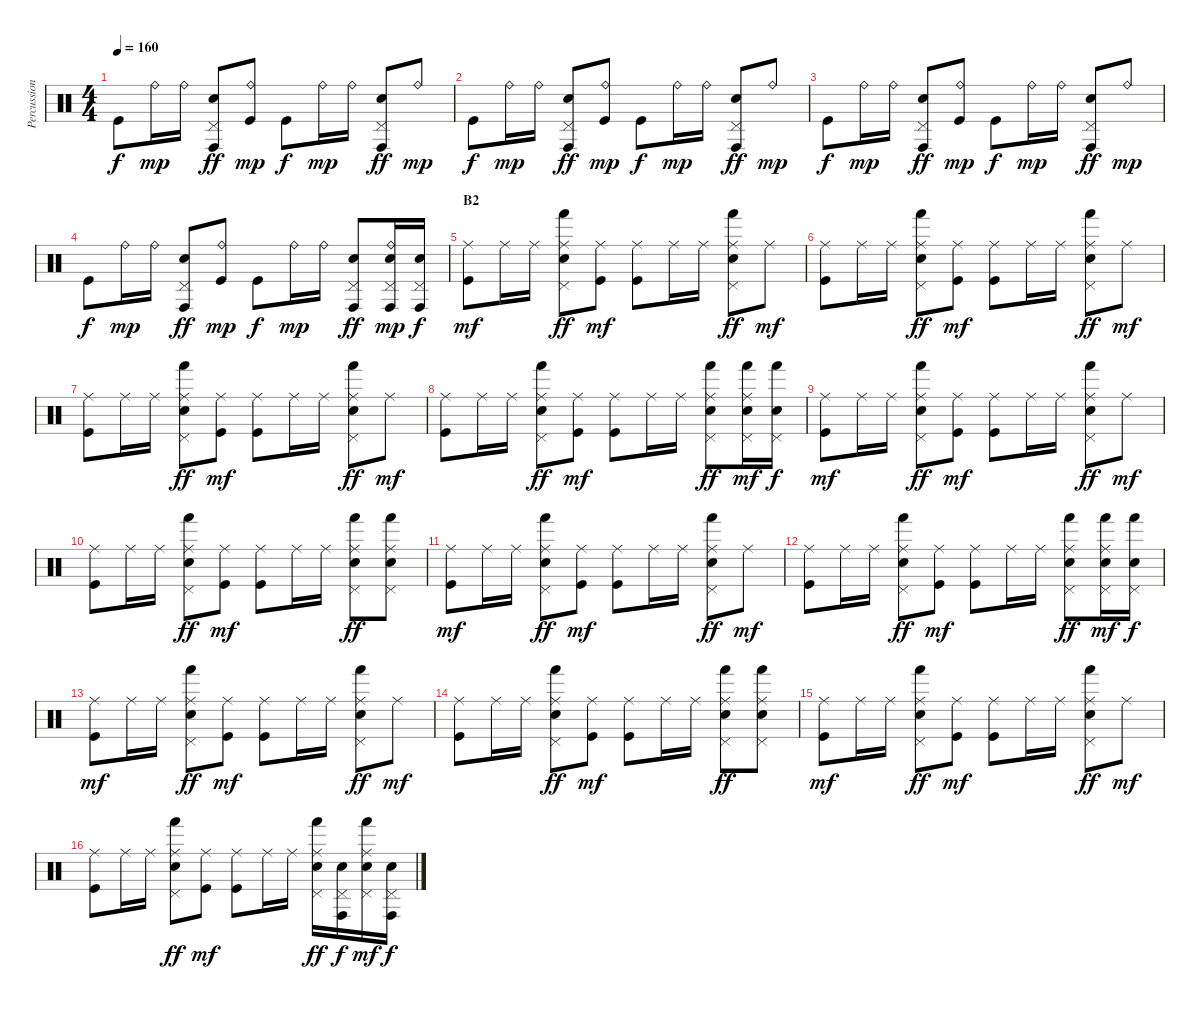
\track ("Percussion" "Percussion") {instrument percussion}
\staff {score}
\articulation defaults
\ts (4 4)
\tempo 160
\clef neutral
\ks c "Kick (hit)".8{dy f} "Ride (bell)".16{dy mp} "Ride (bell)".16
("Pedal Hi-Hat (hit)" "Conga high (hit)" "Electric Snare (hit)").8{dy ff} ("Ride (bell)" "Kick (hit)").8{dy mp} "Kick (hit)".8{dy f} "Ride (bell)".16{dy mp} "Ride (bell)".16 ("Pedal Hi-Hat (hit)" "Conga high (hit)" "Electric Snare (hit)").8{dy ff} "Ride (bell)".8{dy mp} |
"Kick (hit)".8{dy f} "Ride (bell)".16{dy mp} "Ride (bell)".16 ("Pedal Hi-Hat (hit)" "Conga high (hit)" "Electric Snare (hit)").8{dy ff} ("Ride (bell)" "Kick (hit)").8{dy mp} "Kick (hit)".8{dy f} "Ride (bell)".16{dy mp} "Ride (bell)".16 ("Pedal Hi-Hat (hit)" "Conga high (hit)" "Electric Snare (hit)").8{dy ff} "Ride (bell)".8{dy mp} |
"Kick (hit)".8{dy f} "Ride (bell)".16{dy mp} "Ride (bell)".16 ("Pedal Hi-Hat (hit)" "Conga high (hit)" "Electric Snare (hit)").8{dy ff} ("Ride (bell)" "Kick (hit)").8{dy mp} "Kick (hit)".8{dy f} "Ride (bell)".16{dy mp} "Ride (bell)".16 ("Pedal Hi-Hat (hit)" "Conga high (hit)" "Electric Snare (hit)").8{dy ff} "Ride (bell)".8{dy mp} |
"Kick (hit)".8{dy f} "Ride (bell)".16{dy mp} "Ride (bell)".16 ("Pedal Hi-Hat (hit)" "Conga high (hit)" "Electric Snare (hit)").8{dy ff} ("Ride (bell)" "Kick (hit)").8{dy mp} "Kick (hit)".8{dy f} "Ride (bell)".16{dy mp} "Ride (bell)".16 ("Pedal Hi-Hat (hit)" "Conga high (hit)" "Electric Snare (hit)").8{dy ff} ("Ride (bell)" "Pedal Hi-Hat (hit)" "Conga high (hit)" "Electric Snare (hit)").16{dy mp} ("Pedal Hi-Hat (hit)" "Conga high (hit)" "Electric Snare (hit)").16{dy f} |
\section ("" "B2")
("Ride (middle)" "Kick (hit)").8{dy mf} "Ride (middle)".16 "Ride (middle)".16 ("Ride (middle)" "Pedal Hi-Hat (hit)" "Hand (hit)" "Electric Snare (hit)").8{dy ff} ("Ride (middle)" "Kick (hit)").8{dy mf} ("Ride (middle)" "Kick (hit)").8 "Ride (middle)".16 "Ride (middle)".16 ("Ride (middle)" "Pedal Hi-Hat (hit)" "Hand (hit)" "Electric Snare (hit)").8{dy ff} "Ride (middle)".8{dy mf} |
("Ride (middle)" "Kick (hit)").8 "Ride (middle)".16 "Ride (middle)".16 ("Ride (middle)" "Pedal Hi-Hat (hit)" "Hand (hit)" "Electric Snare (hit)").8{dy ff} ("Ride (middle)" "Kick (hit)").8{dy mf} ("Ride (middle)" "Kick (hit)").8 "Ride (middle)".16 "Ride (middle)".16 ("Ride (middle)" "Pedal Hi-Hat (hit)" "Hand (hit)" "Electric Snare (hit)").8{dy ff} "Ride (middle)".8{dy mf} |
("Ride (middle)" "Kick (hit)").8 "Ride (middle)".16 "Ride (middle)".16 ("Ride (middle)" "Pedal Hi-Hat (hit)" "Hand (hit)" "Electric Snare (hit)").8{dy ff} ("Ride (middle)" "Kick (hit)").8{dy mf} ("Ride (middle)" "Kick (hit)").8 "Ride (middle)".16 "Ride (middle)".16 ("Ride (middle)" "Pedal Hi-Hat (hit)" "Hand (hit)" "Electric Snare (hit)").8{dy ff} "Ride (middle)".8{dy mf} |
("Ride (middle)" "Kick (hit)").8 "Ride (middle)".16 "Ride (middle)".16 ("Ride (middle)" "Pedal Hi-Hat (hit)" "Hand (hit)" "Electric Snare (hit)").8{dy ff} ("Ride (middle)" "Kick (hit)").8{dy mf} ("Ride (middle)" "Kick (hit)").8 "Ride (middle)".16 "Ride (middle)".16 ("Ride (middle)" "Pedal Hi-Hat (hit)" "Hand (hit)" "Electric Snare (hit)").8{dy ff} ("Ride (middle)" "Pedal Hi-Hat (hit)" "Hand (hit)" "Electric Snare (hit)").16{dy mf} ("Pedal Hi-Hat (hit)" "Hand (hit)" "Electric Snare (hit)").16{dy f} |
("Ride (middle)" "Kick (hit)").8{dy mf} "Ride (middle)".16 "Ride (middle)".16 ("Ride (middle)" "Pedal Hi-Hat (hit)" "Hand (hit)" "Electric Snare (hit)").8{dy ff} ("Ride (middle)" "Kick (hit)").8{dy mf} ("Ride (middle)" "Kick (hit)").8 "Ride (middle)".16 "Ride (middle)".16 ("Ride (middle)" "Pedal Hi-Hat (hit)" "Hand (hit)" "Electric Snare (hit)").8{dy ff} "Ride (middle)".8{dy mf} |
("Ride (middle)" "Kick (hit)").8 "Ride (middle)".16 "Ride (middle)".16 ("Ride (middle)" "Pedal Hi-Hat (hit)" "Hand (hit)" "Electric Snare (hit)").8{dy ff} ("Ride (middle)" "Kick (hit)").8{dy mf} ("Ride (middle)" "Kick (hit)").8 "Ride (middle)".16 "Ride (middle)".16 ("Ride (middle)" "Pedal Hi-Hat (hit)" "Hand (hit)" "Electric Snare (hit)").8{dy ff} ("Ride (middle)" "Pedal Hi-Hat (hit)" "Hand (hit)" "Electric Snare (hit)").8 |
("Ride (middle)" "Kick (hit)").8{dy mf} "Ride (middle)".16 "Ride (middle)".16 ("Ride (middle)" "Pedal Hi-Hat (hit)" "Hand (hit)" "Electric Snare (hit)").8{dy ff} ("Ride (middle)" "Kick (hit)").8{dy mf} ("Ride (middle)" "Kick (hit)").8 "Ride (middle)".16 "Ride (middle)".16 ("Ride (middle)" "Pedal Hi-Hat (hit)" "Hand (hit)" "Electric Snare (hit)").8{dy ff} "Ride (middle)".8{dy mf} |
("Ride (middle)" "Kick (hit)").8 "Ride (middle)".16 "Ride (middle)".16 ("Ride (middle)" "Pedal Hi-Hat (hit)" "Hand (hit)" "Electric Snare (hit)").8{dy ff} ("Ride (middle)" "Kick (hit)").8{dy mf} ("Ride (middle)" "Kick (hit)").8 "Ride (middle)".16 "Ride (middle)".16 ("Ride (middle)" "Pedal Hi-Hat (hit)" "Hand (hit)" "Electric Snare (hit)").8{dy ff} ("Ride (middle)" "Pedal Hi-Hat (hit)" "Hand (hit)" "Electric Snare (hit)").16{dy mf} ("Pedal Hi-Hat (hit)" "Hand (hit)" "Electric Snare (hit)").16{dy f} |
("Ride (middle)" "Kick (hit)").8{dy mf} "Ride (middle)".16 "Ride (middle)".16 ("Ride (middle)" "Pedal Hi-Hat (hit)" "Hand (hit)" "Electric Snare (hit)").8{dy ff} ("Ride (middle)" "Kick (hit)").8{dy mf} ("Ride (middle)" "Kick (hit)").8 "Ride (middle)".16 "Ride (middle)".16 ("Ride (middle)" "Pedal Hi-Hat (hit)" "Hand (hit)" "Electric Snare (hit)").8{dy ff} "Ride (middle)".8{dy mf} |
("Ride (middle)" "Kick (hit)").8 "Ride (middle)".16 "Ride (middle)".16 ("Ride (middle)" "Pedal Hi-Hat (hit)" "Hand (hit)" "Electric Snare (hit)").8{dy ff} ("Ride (middle)" "Kick (hit)").8{dy mf} ("Ride (middle)" "Kick (hit)").8 "Ride (middle)".16 "Ride (middle)".16 ("Ride (middle)" "Pedal Hi-Hat (hit)" "Hand (hit)" "Electric Snare (hit)").8{dy ff} ("Ride (middle)" "Pedal Hi-Hat (hit)" "Hand (hit)" "Electric Snare (hit)").8 |
("Ride (middle)" "Kick (hit)").8{dy mf} "Ride (middle)".16 "Ride (middle)".16 ("Ride (middle)" "Pedal Hi-Hat (hit)" "Hand (hit)" "Electric Snare (hit)").8{dy ff} ("Ride (middle)" "Kick (hit)").8{dy mf} ("Ride (middle)" "Kick (hit)").8 "Ride (middle)".16 "Ride (middle)".16 ("Ride (middle)" "Pedal Hi-Hat (hit)" "Hand (hit)" "Electric Snare (hit)").8{dy ff} "Ride (middle)".8{dy mf} |
("Ride (middle)" "Kick (hit)").8 "Ride (middle)".16 "Ride (middle)".16 ("Ride (middle)" "Pedal Hi-Hat (hit)" "Hand (hit)" "Electric Snare (hit)").8{dy ff} ("Ride (middle)" "Kick (hit)").8{dy mf} ("Ride (middle)" "Kick (hit)").8 "Ride (middle)".16 "Ride (middle)".16 ("Ride (middle)" "Pedal Hi-Hat (hit)" "Hand (hit)" "Electric Snare (hit)").16{dy ff} ("Pedal Hi-Hat (hit)" "Conga high (hit)" "Electric Snare (hit)").16{dy f} ("Ride (middle)" "Pedal Hi-Hat (hit)" "Hand (hit)" "Electric Snare (hit)").16{dy mf} ("Pedal Hi-Hat (hit)" "Conga high (hit)" "Electric Snare (hit)").16{dy f}
